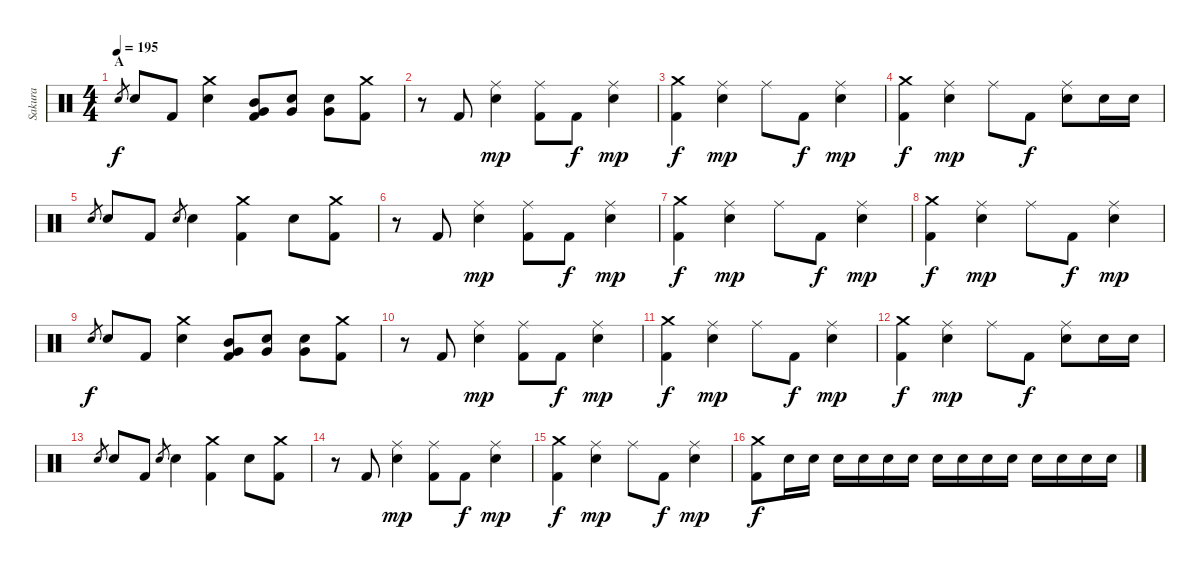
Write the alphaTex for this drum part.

\track ("Sakura" "Sakura") {instrument percussion}
\staff {score}
\articulation defaults
\ts (4 4)
\section ("" "A")
\tempo 195
\clef neutral
\ks c "Snare (hit) 2".8{gr dy f} "Snare (hit) 2".8 "Kick (hit) 2".8
("Crash medium (hit)" "Snare (hit) 2").4 ("Mid Tom (hit)" "Very Low Tom (hit)" "Kick (hit) 2").8 ("Snare (hit) 2" "Very Low Tom (hit)").8 ("Snare (hit) 2" "Very Low Tom (hit)").8 ("Crash medium (hit)" "Kick (hit) 2").8 |
r.8 "Kick (hit) 2".8 ("Ride (middle)" "Snare (hit) 2").4{dy mp} ("Ride (middle)" "Kick (hit) 2").8 "Kick (hit) 2".8{dy f} ("Ride (middle)" "Snare (hit) 2").4{dy mp} |
("Crash medium (hit)" "Kick (hit) 2").4{dy f} ("Ride (middle)" "Snare (hit) 2").4{dy mp} "Ride (middle)".8 "Kick (hit) 2".8{dy f} ("Ride (middle)" "Snare (hit) 2").4{dy mp} |
("Crash medium (hit)" "Kick (hit) 2").4{dy f} ("Ride (middle)" "Snare (hit) 2").4{dy mp} "Ride (middle)".8 "Kick (hit) 2".8{dy f} ("Ride (middle)" "Snare (hit) 2").8 "Snare (hit) 2".16 "Snare (hit) 2".16 |
"Snare (hit) 2".8{gr} "Snare (hit) 2".8 "Kick (hit) 2".8 "Snare (hit) 2".8{gr} "Snare (hit) 2".4 ("Crash medium (hit)" "Kick (hit) 2").4 "Snare (hit) 2".8 ("Crash medium (hit)" "Kick (hit) 2").8 |
r.8 "Kick (hit) 2".8 ("Ride (middle)" "Snare (hit) 2").4{dy mp} ("Ride (middle)" "Kick (hit) 2").8 "Kick (hit) 2".8{dy f} ("Ride (middle)" "Snare (hit) 2").4{dy mp} |
("Crash medium (hit)" "Kick (hit) 2").4{dy f} ("Ride (middle)" "Snare (hit) 2").4{dy mp} "Ride (middle)".8 "Kick (hit) 2".8{dy f} ("Ride (middle)" "Snare (hit) 2").4{dy mp} |
("Crash medium (hit)" "Kick (hit) 2").4{dy f} ("Ride (middle)" "Snare (hit) 2").4{dy mp} "Ride (middle)".8 "Kick (hit) 2".8{dy f} ("Ride (middle)" "Snare (hit) 2").4{dy mp} |
"Snare (hit) 2".8{gr dy f} "Snare (hit) 2".8 "Kick (hit) 2".8 ("Crash medium (hit)" "Snare (hit) 2").4 ("Mid Tom (hit)" "Very Low Tom (hit)" "Kick (hit) 2").8 ("Snare (hit) 2" "Very Low Tom (hit)").8 ("Snare (hit) 2" "Very Low Tom (hit)").8 ("Crash medium (hit)" "Kick (hit) 2").8 |
r.8 "Kick (hit) 2".8 ("Ride (middle)" "Snare (hit) 2").4{dy mp} ("Ride (middle)" "Kick (hit) 2").8 "Kick (hit) 2".8{dy f} ("Ride (middle)" "Snare (hit) 2").4{dy mp} |
("Crash medium (hit)" "Kick (hit) 2").4{dy f} ("Ride (middle)" "Snare (hit) 2").4{dy mp} "Ride (middle)".8 "Kick (hit) 2".8{dy f} ("Ride (middle)" "Snare (hit) 2").4{dy mp} |
("Crash medium (hit)" "Kick (hit) 2").4{dy f} ("Ride (middle)" "Snare (hit) 2").4{dy mp} "Ride (middle)".8 "Kick (hit) 2".8{dy f} ("Ride (middle)" "Snare (hit) 2").8 "Snare (hit) 2".16 "Snare (hit) 2".16 |
"Snare (hit) 2".8{gr} "Snare (hit) 2".8 "Kick (hit) 2".8 "Snare (hit) 2".8{gr} "Snare (hit) 2".4 ("Crash medium (hit)" "Kick (hit) 2").4 "Snare (hit) 2".8 ("Crash medium (hit)" "Kick (hit) 2").8 |
r.8 "Kick (hit) 2".8 ("Ride (middle)" "Snare (hit) 2").4{dy mp} ("Ride (middle)" "Kick (hit) 2").8 "Kick (hit) 2".8{dy f} ("Ride (middle)" "Snare (hit) 2").4{dy mp} |
("Crash medium (hit)" "Kick (hit) 2").4{dy f} ("Ride (middle)" "Snare (hit) 2").4{dy mp} "Ride (middle)".8 "Kick (hit) 2".8{dy f} ("Ride (middle)" "Snare (hit) 2").4{dy mp} |
("Crash medium (hit)" "Kick (hit) 2").8{dy f} "Snare (hit) 2".16 "Snare (hit) 2".16 "Snare (hit) 2".16 "Snare (hit) 2".16 "Snare (hit) 2".16 "Snare (hit) 2".16 "Snare (hit) 2".16 "Snare (hit) 2".16 "Snare (hit) 2".16 "Snare (hit) 2".16 "Snare (hit) 2".16 "Snare (hit) 2".16 "Snare (hit) 2".16 "Snare (hit) 2".16
